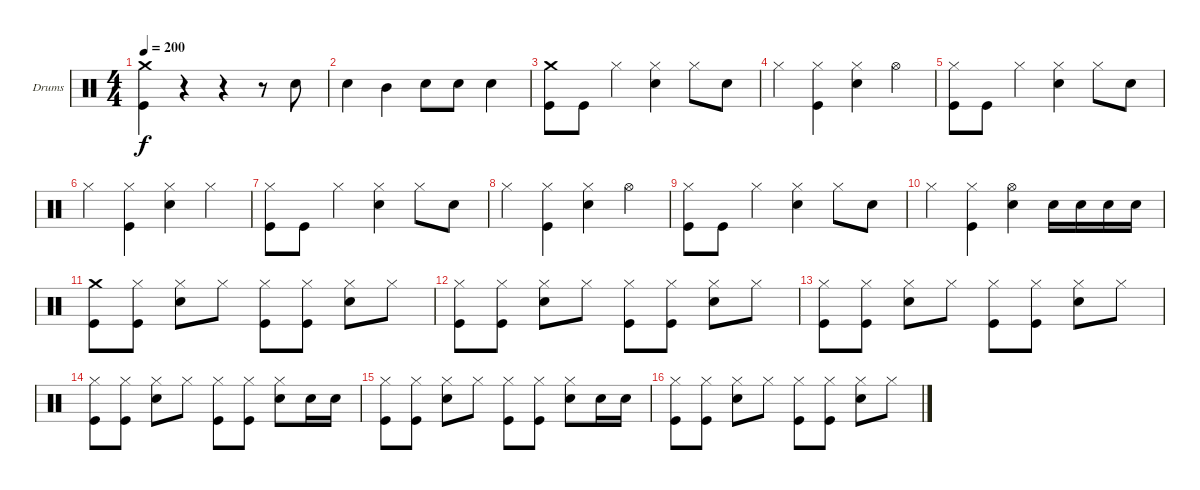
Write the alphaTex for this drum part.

\bracketExtendMode groupsimilarinstruments
\firstSystemTrackNameOrientation horizontal
\otherSystemsTrackNameOrientation horizontal
\track ("Drumkit" "Drums") {instrument percussion}
\staff {score}
\articulation defaults
\ts (4 4)
\tempo 200
\clef neutral
\ks c
("Crash medium (hit)" "Kick (hit)").4{dy f} r.4 r.4 r.8 "Snare (hit) 2".8 |
"Snare (hit) 2".4 "Mid Tom (hit)".4 "Snare (hit) 2".8 "Snare (hit) 2".8 "Snare (hit) 2".4 |
("Crash medium (hit)" "Kick (hit)").8 "Kick (hit)".8 "Hi-Hat (closed)".4 ("Hi-Hat (closed)" "Snare (hit) 2").4 "Hi-Hat (closed)".8 "Snare (hit) 2".8 |
"Hi-Hat (closed)".4 ("Hi-Hat (closed)" "Kick (hit)").4 ("Hi-Hat (closed)" "Snare (hit) 2").4 "Hi-Hat (open)".4 |
("Hi-Hat (closed)" "Kick (hit)").8 "Kick (hit)".8 "Hi-Hat (closed)".4 ("Hi-Hat (closed)" "Snare (hit) 2").4 "Hi-Hat (closed)".8 "Snare (hit) 2".8 |
"Hi-Hat (closed)".4 ("Hi-Hat (closed)" "Kick (hit)").4 ("Hi-Hat (closed)" "Snare (hit) 2").4 "Hi-Hat (closed)".4 |
("Hi-Hat (closed)" "Kick (hit)").8 "Kick (hit)".8 "Hi-Hat (closed)".4 ("Hi-Hat (closed)" "Snare (hit) 2").4 "Hi-Hat (closed)".8 "Snare (hit) 2".8 |
"Hi-Hat (closed)".4 ("Hi-Hat (closed)" "Kick (hit)").4 ("Hi-Hat (closed)" "Snare (hit) 2").4 "Hi-Hat (open)".4 |
("Hi-Hat (closed)" "Kick (hit)").8 "Kick (hit)".8 "Hi-Hat (closed)".4 ("Hi-Hat (closed)" "Snare (hit) 2").4 "Hi-Hat (closed)".8 "Snare (hit) 2".8 |
"Hi-Hat (closed)".4 ("Hi-Hat (closed)" "Kick (hit)").4 ("Hi-Hat (open)" "Snare (hit) 2").4 "Snare (hit) 2".16 "Snare (hit) 2".16 "Snare (hit) 2".16 "Snare (hit) 2".16 |
("Crash medium (hit)" "Kick (hit)").8 ("Hi-Hat (closed)" "Kick (hit)").8 ("Hi-Hat (closed)" "Snare (hit) 2").8 "Hi-Hat (closed)".8 ("Hi-Hat (closed)" "Kick (hit)").8 ("Hi-Hat (closed)" "Kick (hit)").8 ("Hi-Hat (closed)" "Snare (hit) 2").8 "Hi-Hat (closed)".8 |
("Hi-Hat (closed)" "Kick (hit)").8 ("Hi-Hat (closed)" "Kick (hit)").8 ("Hi-Hat (closed)" "Snare (hit) 2").8 "Hi-Hat (closed)".8 ("Hi-Hat (closed)" "Kick (hit)").8 ("Hi-Hat (closed)" "Kick (hit)").8 ("Hi-Hat (closed)" "Snare (hit) 2").8 "Hi-Hat (closed)".8 |
("Hi-Hat (closed)" "Kick (hit)").8 ("Hi-Hat (closed)" "Kick (hit)").8 ("Hi-Hat (closed)" "Snare (hit) 2").8 "Hi-Hat (closed)".8 ("Hi-Hat (closed)" "Kick (hit)").8 ("Hi-Hat (closed)" "Kick (hit)").8 ("Hi-Hat (closed)" "Snare (hit) 2").8 "Hi-Hat (closed)".8 |
("Hi-Hat (closed)" "Kick (hit)").8 ("Hi-Hat (closed)" "Kick (hit)").8 ("Hi-Hat (closed)" "Snare (hit) 2").8 "Hi-Hat (closed)".8 ("Hi-Hat (closed)" "Kick (hit)").8 ("Hi-Hat (closed)" "Kick (hit)").8 ("Hi-Hat (closed)" "Snare (hit) 2").8 "Snare (hit) 2".16 "Snare (hit) 2".16 |
("Hi-Hat (closed)" "Kick (hit)").8 ("Hi-Hat (closed)" "Kick (hit)").8 ("Hi-Hat (closed)" "Snare (hit) 2").8 "Hi-Hat (closed)".8 ("Hi-Hat (closed)" "Kick (hit)").8 ("Hi-Hat (closed)" "Kick (hit)").8 ("Hi-Hat (closed)" "Snare (hit) 2").8 "Snare (hit) 2".16 "Snare (hit) 2".16 |
("Hi-Hat (closed)" "Kick (hit)").8 ("Hi-Hat (closed)" "Kick (hit)").8 ("Hi-Hat (closed)" "Snare (hit) 2").8 "Hi-Hat (closed)".8 ("Hi-Hat (closed)" "Kick (hit)").8 ("Hi-Hat (closed)" "Kick (hit)").8 ("Hi-Hat (closed)" "Snare (hit) 2").8 "Hi-Hat (closed)".8
